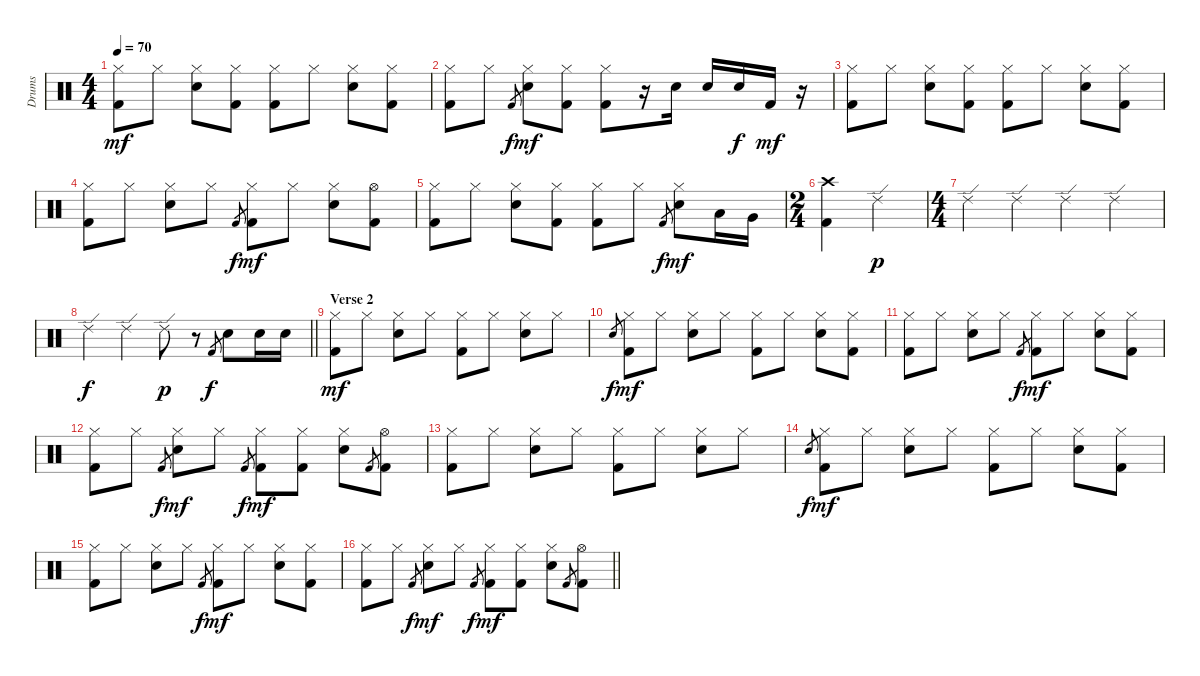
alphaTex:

\track ("Drums" "Drums") {instrument percussion}
\staff {score}
\articulation defaults
\ts (4 4)
\tempo 70
\clef neutral
\ks c
("Hi-Hat (closed)" "Kick (hit) 2").8{dy mf} "Hi-Hat (closed)".8 ("Hi-Hat (closed)" "Snare (hit) 2").8 ("Hi-Hat (closed)" "Kick (hit) 2").8 ("Hi-Hat (closed)" "Kick (hit) 2").8 "Hi-Hat (closed)".8 ("Hi-Hat (closed)" "Snare (hit) 2").8 ("Hi-Hat (closed)" "Kick (hit) 2").8 |
("Hi-Hat (closed)" "Kick (hit) 2").8 "Hi-Hat (closed)".8 "Kick (hit) 2".8{gr dy f} ("Hi-Hat (closed)" "Snare (hit) 2").8{dy mf} ("Hi-Hat (closed)" "Kick (hit) 2").8 ("Hi-Hat (closed)" "Kick (hit) 2").8 r.16 "Snare (hit) 2".16 "Snare (hit) 2".16 "Snare (hit) 2".16{dy f} "Kick (hit) 2".16{dy mf} r.16 |
("Hi-Hat (closed)" "Kick (hit) 2").8 "Hi-Hat (closed)".8 ("Hi-Hat (closed)" "Snare (hit) 2").8 ("Hi-Hat (closed)" "Kick (hit) 2").8 ("Hi-Hat (closed)" "Kick (hit) 2").8 "Hi-Hat (closed)".8 ("Hi-Hat (closed)" "Snare (hit) 2").8 ("Hi-Hat (closed)" "Kick (hit) 2").8 |
("Hi-Hat (closed)" "Kick (hit) 2").8 "Hi-Hat (closed)".8 ("Hi-Hat (closed)" "Snare (hit) 2").8 "Hi-Hat (closed)".8 "Kick (hit) 2".8{gr dy f} ("Hi-Hat (closed)" "Kick (hit) 2").8{dy mf} "Hi-Hat (closed)".8 ("Hi-Hat (closed)" "Snare (hit) 2").8 ("Hi-Hat (open)" "Kick (hit) 2").8 |
("Hi-Hat (closed)" "Kick (hit) 2").8 "Hi-Hat (closed)".8 ("Hi-Hat (closed)" "Snare (hit) 2").8 ("Hi-Hat (closed)" "Kick (hit) 2").8 ("Hi-Hat (closed)" "Kick (hit) 2").8 "Hi-Hat (closed)".8 "Kick (hit) 2".8{gr dy f} ("Hi-Hat (closed)" "Snare (hit) 2").8{dy mf} "Low Tom (hit)".16 "Very Low Tom (hit)".16 |
\ts (2 4)
("Crash high (hit)" "Kick (hit) 2").4 "Ride (edge) 2".4{dy p} |
\ts (4 4)
"Ride (edge) 2".4 "Ride (edge) 2".4 "Ride (edge) 2".4 "Ride (edge) 2".4 |
\barLineRight lightlight "Ride (edge) 2".4{dy f} "Ride (edge) 2".4 "Ride (edge) 2".8{dy p}
r.8 "Kick (hit) 2".8{gr dy f} "Snare (hit) 2".8 "Snare (hit) 2".16 "Snare (hit) 2".16 |
\section ("" "Verse 2")
("Hi-Hat (closed)" "Kick (hit) 2").8{dy mf} "Hi-Hat (closed)".8 ("Hi-Hat (closed)" "Snare (hit) 2").8 "Hi-Hat (closed)".8 ("Hi-Hat (closed)" "Kick (hit) 2").8 "Hi-Hat (closed)".8 ("Hi-Hat (closed)" "Snare (hit) 2").8 "Hi-Hat (closed)".8 |
"Snare (hit) 2".8{gr dy f} ("Hi-Hat (closed)" "Kick (hit) 2").8{dy mf} "Hi-Hat (closed)".8 ("Hi-Hat (closed)" "Snare (hit) 2").8 "Hi-Hat (closed)".8 ("Hi-Hat (closed)" "Kick (hit) 2").8 "Hi-Hat (closed)".8 ("Hi-Hat (closed)" "Snare (hit) 2").8 ("Hi-Hat (closed)" "Kick (hit) 2").8 |
("Hi-Hat (closed)" "Kick (hit) 2").8 "Hi-Hat (closed)".8 ("Hi-Hat (closed)" "Snare (hit) 2").8 "Hi-Hat (closed)".8 "Kick (hit) 2".8{gr dy f} ("Hi-Hat (closed)" "Kick (hit) 2").8{dy mf} "Hi-Hat (closed)".8 ("Hi-Hat (closed)" "Snare (hit) 2").8 ("Hi-Hat (closed)" "Kick (hit) 2").8 |
("Hi-Hat (closed)" "Kick (hit) 2").8 "Hi-Hat (closed)".8 "Kick (hit) 2".8{gr dy f} ("Hi-Hat (closed)" "Snare (hit) 2").8{dy mf} "Hi-Hat (closed)".8 "Kick (hit) 2".8{gr dy f} ("Hi-Hat (closed)" "Kick (hit) 2").8{dy mf} ("Hi-Hat (closed)" "Kick (hit) 2").8 ("Hi-Hat (closed)" "Snare (hit) 2").8 "Kick (hit) 2".8{gr} ("Hi-Hat (open)" "Kick (hit) 2").8 |
("Hi-Hat (closed)" "Kick (hit) 2").8 "Hi-Hat (closed)".8 ("Hi-Hat (closed)" "Snare (hit) 2").8 "Hi-Hat (closed)".8 ("Hi-Hat (closed)" "Kick (hit) 2").8 "Hi-Hat (closed)".8 ("Hi-Hat (closed)" "Snare (hit) 2").8 "Hi-Hat (closed)".8 |
"Snare (hit) 2".8{gr dy f} ("Hi-Hat (closed)" "Kick (hit) 2").8{dy mf} "Hi-Hat (closed)".8 ("Hi-Hat (closed)" "Snare (hit) 2").8 "Hi-Hat (closed)".8 ("Hi-Hat (closed)" "Kick (hit) 2").8 "Hi-Hat (closed)".8 ("Hi-Hat (closed)" "Snare (hit) 2").8 ("Hi-Hat (closed)" "Kick (hit) 2").8 |
("Hi-Hat (closed)" "Kick (hit) 2").8 "Hi-Hat (closed)".8 ("Hi-Hat (closed)" "Snare (hit) 2").8 "Hi-Hat (closed)".8 "Kick (hit) 2".8{gr dy f} ("Hi-Hat (closed)" "Kick (hit) 2").8{dy mf} "Hi-Hat (closed)".8 ("Hi-Hat (closed)" "Snare (hit) 2").8 ("Hi-Hat (closed)" "Kick (hit) 2").8 |
\barLineRight lightlight
("Hi-Hat (closed)" "Kick (hit) 2").8 "Hi-Hat (closed)".8 "Kick (hit) 2".8{gr dy f} ("Hi-Hat (closed)" "Snare (hit) 2").8{dy mf} "Hi-Hat (closed)".8 "Kick (hit) 2".8{gr dy f} ("Hi-Hat (closed)" "Kick (hit) 2").8{dy mf} ("Hi-Hat (closed)" "Kick (hit) 2").8 ("Hi-Hat (closed)" "Snare (hit) 2").8 "Kick (hit) 2".8{gr} ("Hi-Hat (open)" "Kick (hit) 2").8
